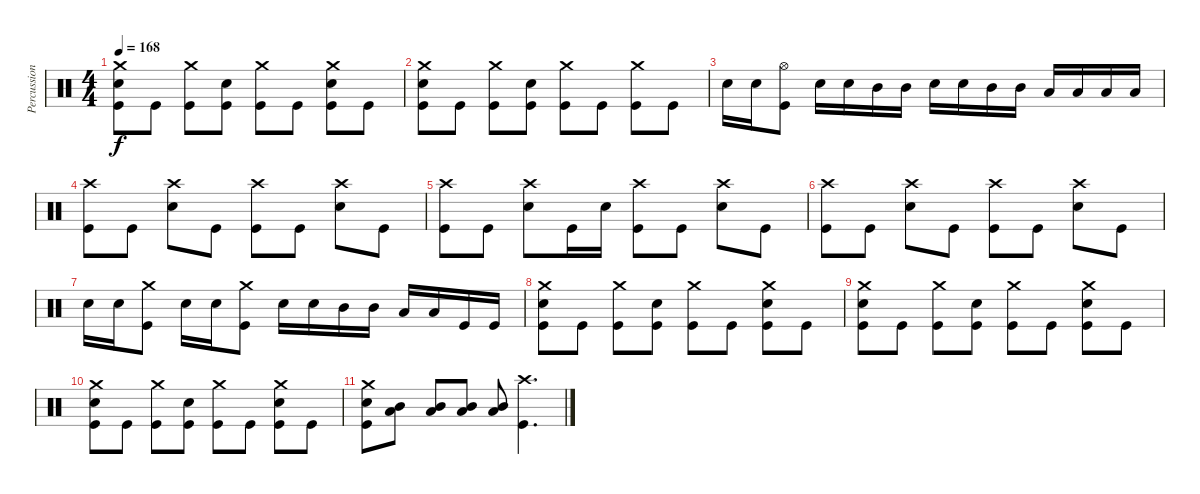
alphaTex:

\track ("Percussion" "Percussion") {instrument percussion}
\staff {score}
\articulation defaults
\ts (4 4)
\tempo 168
\clef neutral
\ks c
("Crash medium (hit)" "Electric Snare (hit)" "Kick (hit)").8{dy f} "Kick (hit)".8 ("Crash medium (hit)" "Kick (hit)").8 ("Electric Snare (hit)" "Kick (hit)").8 ("Crash medium (hit)" "Kick (hit)").8 "Kick (hit)".8 ("Crash medium (hit)" "Electric Snare (hit)" "Kick (hit)").8 "Kick (hit)".8 |
("Crash medium (hit)" "Electric Snare (hit)" "Kick (hit)").8 "Kick (hit)".8 ("Crash medium (hit)" "Kick (hit)").8 ("Electric Snare (hit)" "Kick (hit)").8 ("Crash medium (hit)" "Kick (hit)").8 "Kick (hit)".8 ("Crash medium (hit)" "Kick (hit)").8 "Kick (hit)".8 |
"Electric Snare (hit)".16 "Electric Snare (hit)".16 ("Hi-Hat (open)" "Kick (hit)").8 "Electric Snare (hit)".16 "Electric Snare (hit)".16 "Mid Tom (hit)".16 "Mid Tom (hit)".16 "Electric Snare (hit)".16 "Electric Snare (hit)".16 "Mid Tom (hit)".16 "Mid Tom (hit)".16 "Low Tom (hit)".16 "Low Tom (hit)".16 "Low Tom (hit)".16 "Low Tom (hit)".16 |
("Crash high (hit)" "Kick (hit)").8 "Kick (hit)".8 ("Crash high (hit)" "Electric Snare (hit)").8 "Kick (hit)".8 ("Crash high (hit)" "Kick (hit)").8 "Kick (hit)".8 ("Crash high (hit)" "Electric Snare (hit)").8 "Kick (hit)".8 |
("Crash high (hit)" "Kick (hit)").8 "Kick (hit)".8 ("Crash high (hit)" "Electric Snare (hit)").8 "Kick (hit)".16 "Electric Snare (hit)".16 ("Crash high (hit)" "Kick (hit)").8 "Kick (hit)".8 ("Crash high (hit)" "Electric Snare (hit)").8 "Kick (hit)".8 |
("Crash high (hit)" "Kick (hit)").8 "Kick (hit)".8 ("Crash high (hit)" "Electric Snare (hit)").8 "Kick (hit)".8 ("Crash high (hit)" "Kick (hit)").8 "Kick (hit)".8 ("Crash high (hit)" "Electric Snare (hit)").8 "Kick (hit)".8 |
"Electric Snare (hit)".16 "Electric Snare (hit)".16 ("Crash medium (hit)" "Kick (hit)").8 "Electric Snare (hit)".16 "Electric Snare (hit)".16 ("Crash medium (hit)" "Kick (hit)").8 "Electric Snare (hit)".16 "Electric Snare (hit)".16 "Mid Tom (hit)".16 "Mid Tom (hit)".16 "Low Tom (hit)".16 "Low Tom (hit)".16 "Kick (hit)".16 "Kick (hit)".16 |
("Crash medium (hit)" "Electric Snare (hit)" "Kick (hit)").8 "Kick (hit)".8 ("Crash medium (hit)" "Kick (hit)").8 ("Electric Snare (hit)" "Kick (hit)").8 ("Crash medium (hit)" "Kick (hit)").8 "Kick (hit)".8 ("Crash medium (hit)" "Electric Snare (hit)" "Kick (hit)").8 "Kick (hit)".8 |
("Crash medium (hit)" "Electric Snare (hit)" "Kick (hit)").8 "Kick (hit)".8 ("Crash medium (hit)" "Kick (hit)").8 ("Electric Snare (hit)" "Kick (hit)").8 ("Crash medium (hit)" "Kick (hit)").8 "Kick (hit)".8 ("Crash medium (hit)" "Electric Snare (hit)" "Kick (hit)").8 "Kick (hit)".8 |
("Crash medium (hit)" "Electric Snare (hit)" "Kick (hit)").8 "Kick (hit)".8 ("Crash medium (hit)" "Kick (hit)").8 ("Electric Snare (hit)" "Kick (hit)").8 ("Crash medium (hit)" "Kick (hit)").8 "Kick (hit)".8 ("Crash medium (hit)" "Electric Snare (hit)" "Kick (hit)").8 "Kick (hit)".8 |
("Crash medium (hit)" "Electric Snare (hit)" "Kick (hit)").8 ("Mid Tom (hit)" "Low Tom (hit)").8 ("Mid Tom (hit)" "Low Tom (hit)").8 ("Mid Tom (hit)" "Low Tom (hit)").8 ("Mid Tom (hit)" "Low Tom (hit)").8 ("Crash high (hit)" "Kick (hit)").4{d}
